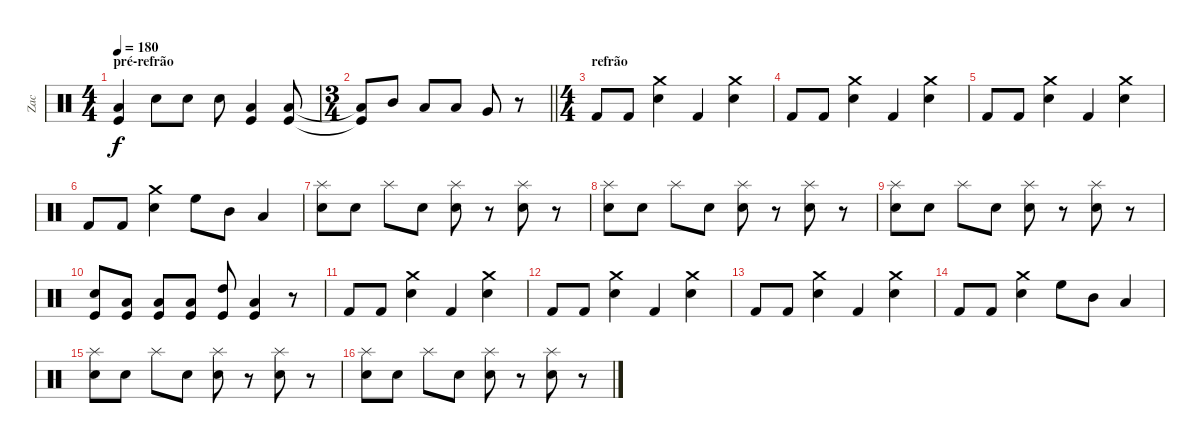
\track ("Zac" "Zac") {instrument percussion}
\staff {score}
\articulation defaults
\ts (4 4)
\section ("" "pré-refrão")
\tempo 180
\clef neutral
\ks c
("Low Floor Tom (hit)" "Kick (hit)").4{dy f} "Electric Snare (hit)".8 "Electric Snare (hit)".8 "Electric Snare (hit)".8 ("Low Floor Tom (hit)" "Kick (hit)").4 ("Low Floor Tom (hit)" "Kick (hit)").8 |
\ts (3 4)
\barLineRight lightlight
("Low Floor Tom (hit)"{t} "Kick (hit)"{t}).8 "Mid Tom (hit)".8 "Low Floor Tom (hit)".8 "Low Floor Tom (hit)".8 "Very Low Tom (hit)".8 r.8 |
\ts (4 4)
\section ("" "refrão")
"Kick (hit) 2".8 "Kick (hit) 2".8 ("Crash medium (hit)" "Electric Snare (hit)").4 "Kick (hit) 2".4 ("Crash medium (hit)" "Electric Snare (hit)").4 |
"Kick (hit) 2".8 "Kick (hit) 2".8 ("Crash medium (hit)" "Electric Snare (hit)").4 "Kick (hit) 2".4 ("Crash medium (hit)" "Electric Snare (hit)").4 |
"Kick (hit) 2".8 "Kick (hit) 2".8 ("Crash medium (hit)" "Electric Snare (hit)").4 "Kick (hit) 2".4 ("Crash medium (hit)" "Electric Snare (hit)").4 |
"Kick (hit) 2".8 "Kick (hit) 2".8 ("Crash medium (hit)" "Electric Snare (hit)").4 "High Floor Tom (hit)".8 "Mid Tom (hit)".8 "Low Tom (hit)".4 |
("Electric Snare (hit)" "Splash (hit)").8 "Electric Snare (hit)".8 "Splash (hit)".8 "Electric Snare (hit)".8 ("Electric Snare (hit)" "Splash (hit)").8 r.8 ("Electric Snare (hit)" "Splash (hit)").8 r.8 |
("Electric Snare (hit)" "Splash (hit)").8 "Electric Snare (hit)".8 "Splash (hit)".8 "Electric Snare (hit)".8 ("Electric Snare (hit)" "Splash (hit)").8 r.8 ("Electric Snare (hit)" "Splash (hit)").8 r.8 |
("Electric Snare (hit)" "Splash (hit)").8 "Electric Snare (hit)".8 "Splash (hit)".8 "Electric Snare (hit)".8 ("Electric Snare (hit)" "Splash (hit)").8 r.8 ("Electric Snare (hit)" "Splash (hit)").8 r.8 |
("Kick (hit)" "Electric Snare (hit)").8 ("Kick (hit)" "Low Tom (hit)").8 ("Kick (hit)" "Low Tom (hit)").8 ("Kick (hit)" "Low Tom (hit)").8 ("Kick (hit)" "High Tom (hit)").8 ("Kick (hit)" "Low Tom (hit)").4 r.8 |
"Kick (hit) 2".8 "Kick (hit) 2".8 ("Crash medium (hit)" "Electric Snare (hit)").4 "Kick (hit) 2".4 ("Crash medium (hit)" "Electric Snare (hit)").4 |
"Kick (hit) 2".8 "Kick (hit) 2".8 ("Crash medium (hit)" "Electric Snare (hit)").4 "Kick (hit) 2".4 ("Crash medium (hit)" "Electric Snare (hit)").4 |
"Kick (hit) 2".8 "Kick (hit) 2".8 ("Crash medium (hit)" "Electric Snare (hit)").4 "Kick (hit) 2".4 ("Crash medium (hit)" "Electric Snare (hit)").4 |
"Kick (hit) 2".8 "Kick (hit) 2".8 ("Crash medium (hit)" "Electric Snare (hit)").4 "High Floor Tom (hit)".8 "Mid Tom (hit)".8 "Low Tom (hit)".4 |
("Electric Snare (hit)" "Splash (hit)").8 "Electric Snare (hit)".8 "Splash (hit)".8 "Electric Snare (hit)".8 ("Electric Snare (hit)" "Splash (hit)").8 r.8 ("Electric Snare (hit)" "Splash (hit)").8 r.8 |
("Electric Snare (hit)" "Splash (hit)").8 "Electric Snare (hit)".8 "Splash (hit)".8 "Electric Snare (hit)".8 ("Electric Snare (hit)" "Splash (hit)").8 r.8 ("Electric Snare (hit)" "Splash (hit)").8 r.8
